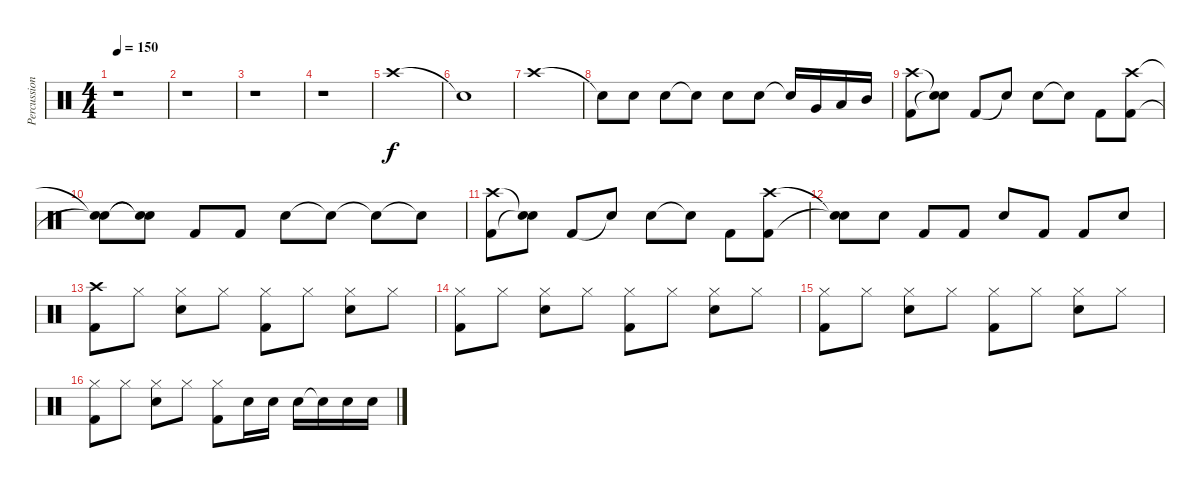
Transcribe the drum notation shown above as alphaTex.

\track ("Percussion" "Percussion") {instrument percussion}
\staff {score}
\articulation defaults
\ts (4 4)
\tempo 150
\clef neutral
\ks c
r.1{dy f} |
r.1 |
r.1 |
r.1 |
"Crash high (hit)".1 |
"Snare (hit)"{t}.1 |
"Crash high (hit)".1 |
"Snare (hit)"{t}.8 "Snare (hit) 2".8 "Snare (hit) 2".8 "Snare (hit)"{t}.8 "Snare (hit) 2".8 "Snare (hit) 2".8 "Snare (hit)"{t}.16 "Very Low Tom (hit)".16 "Low Tom (hit)".16 "Mid Tom (hit)".16 |
("Kick (hit) 2" "Crash high (hit)").8 ("Snare (hit)"{t} "Snare (hit)"{t}).8 "Kick (hit) 2".8 "Snare (hit)"{t}.8 "Snare (hit) 2".8 "Snare (hit)"{t}.8 "Kick (hit) 2".8 ("Kick (hit) 2" "Crash high (hit)").8 |
("Snare (hit)"{t} "Snare (hit)"{t}).8 ("Snare (hit)"{t} "Snare (hit)"{t}).8 "Kick (hit) 2".8 "Kick (hit) 2".8 "Snare (hit) 2".8 "Snare (hit)"{t}.8 "Snare (hit)"{t}.8 "Snare (hit)"{t}.8 |
("Kick (hit) 2" "Crash high (hit)").8 ("Snare (hit)"{t} "Snare (hit)"{t}).8 "Kick (hit) 2".8 "Snare (hit)"{t}.8 "Snare (hit) 2".8 "Snare (hit)"{t}.8 "Kick (hit) 2".8 ("Kick (hit) 2" "Crash high (hit)").8 |
("Snare (hit)"{t} "Snare (hit)"{t}).8 "Snare (hit) 2".8 "Kick (hit) 2".8 "Kick (hit) 2".8 "Snare (hit) 2".8 "Kick (hit) 2".8 "Kick (hit) 2".8 "Snare (hit) 2".8 |
("Kick (hit) 2" "Crash high (hit)").8 "Hi-Hat (closed)".8 ("Snare (hit) 2" "Hi-Hat (closed)").8 "Hi-Hat (closed)".8 ("Kick (hit) 2" "Hi-Hat (closed)").8 "Hi-Hat (closed)".8 ("Snare (hit) 2" "Hi-Hat (closed)").8 "Hi-Hat (closed)".8 |
("Kick (hit) 2" "Hi-Hat (closed)").8 "Hi-Hat (closed)".8 ("Snare (hit) 2" "Hi-Hat (closed)").8 "Hi-Hat (closed)".8 ("Kick (hit) 2" "Hi-Hat (closed)").8 "Hi-Hat (closed)".8 ("Snare (hit) 2" "Hi-Hat (closed)").8 "Hi-Hat (closed)".8 |
("Kick (hit) 2" "Hi-Hat (closed)").8 "Hi-Hat (closed)".8 ("Snare (hit) 2" "Hi-Hat (closed)").8 "Hi-Hat (closed)".8 ("Kick (hit) 2" "Hi-Hat (closed)").8 "Hi-Hat (closed)".8 ("Snare (hit) 2" "Hi-Hat (closed)").8 "Hi-Hat (closed)".8 |
("Kick (hit) 2" "Hi-Hat (closed)").8 "Hi-Hat (closed)".8 ("Snare (hit) 2" "Hi-Hat (closed)").8 "Hi-Hat (closed)".8 ("Kick (hit) 2" "Hi-Hat (closed)").8 "Snare (hit) 2".16 "Snare (hit) 2".16 "Snare (hit) 2".16 "Snare (hit)"{t}.16 "Snare (hit) 2".16 "Snare (hit) 2".16
